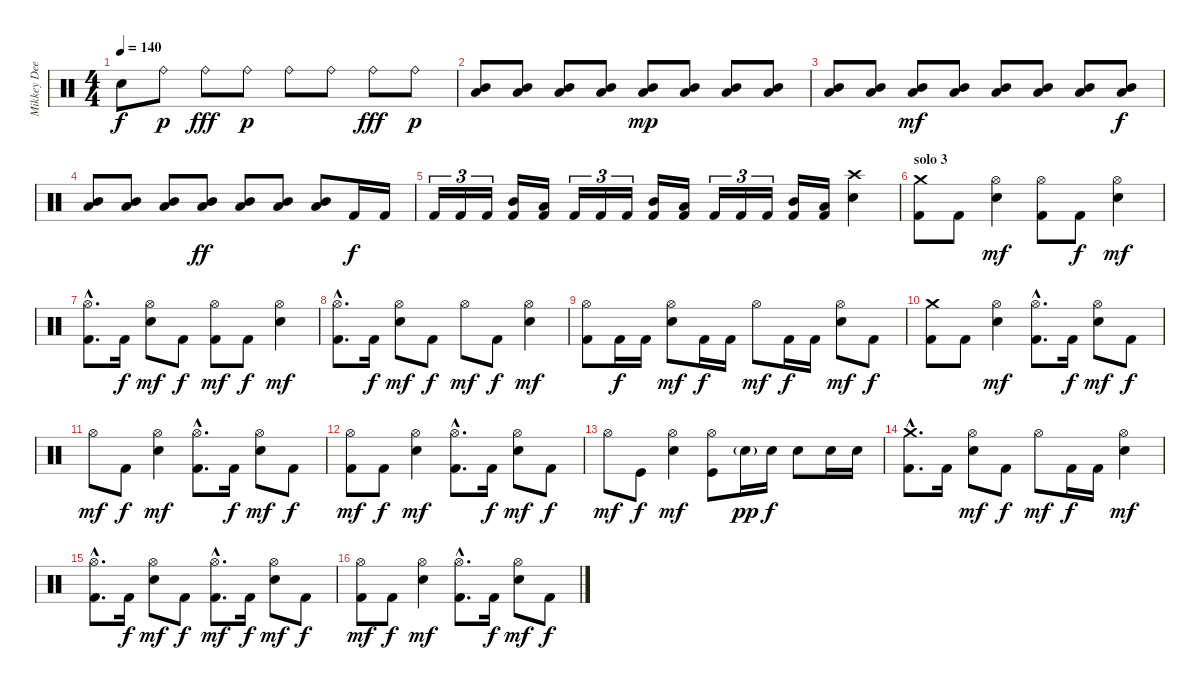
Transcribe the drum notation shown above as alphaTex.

\track ("Mikkey Dee" "Mikkey Dee") {instrument percussion}
\staff {score}
\articulation defaults
\ts (4 4)
\tempo 140
\clef neutral
\ks c "Snare (hit)"{t}.8{dy f} "Ride (bell)".8{dy p} "Ride (bell)".8{dy fff} "Ride (bell)".8{dy p} "Ride (bell)".8 "Ride (bell)".8 "Ride (bell)".8{dy fff} "Ride (bell)".8{dy p}
|
("Mid Tom (hit)" "Low Tom (hit)").8 ("Mid Tom (hit)" "Low Tom (hit)").8 ("Mid Tom (hit)" "Low Tom (hit)").8 ("Mid Tom (hit)" "Low Tom (hit)").8 ("Mid Tom (hit)" "Low Tom (hit)").8{dy mp} ("Mid Tom (hit)" "Low Tom (hit)").8 ("Mid Tom (hit)" "Low Tom (hit)").8 ("Mid Tom (hit)" "Low Tom (hit)").8 |
("Mid Tom (hit)" "Low Tom (hit)").8 ("Mid Tom (hit)" "Low Tom (hit)").8 ("Mid Tom (hit)" "Low Tom (hit)").8{dy mf} ("Mid Tom (hit)" "Low Tom (hit)").8 ("Mid Tom (hit)" "Low Tom (hit)").8 ("Mid Tom (hit)" "Low Tom (hit)").8 ("Mid Tom (hit)" "Low Tom (hit)").8 ("Mid Tom (hit)" "Low Tom (hit)").8{dy f} |
("Mid Tom (hit)" "Low Tom (hit)").8 ("Mid Tom (hit)" "Low Tom (hit)").8 ("Mid Tom (hit)" "Low Tom (hit)").8 ("Mid Tom (hit)" "Low Tom (hit)").8{dy ff} ("Mid Tom (hit)" "Low Tom (hit)").8 ("Mid Tom (hit)" "Low Tom (hit)").8 ("Mid Tom (hit)" "Low Tom (hit)").8 "Kick (hit) 2".16{dy f} "Kick (hit) 2".16 |
"Kick (hit) 2".16{tu (3 2)} "Kick (hit) 2".16{tu (3 2)} "Kick (hit) 2".16{tu (3 2)} ("Kick (hit) 2" "Mid Tom (hit)").16 ("Kick (hit) 2" "Low Tom (hit)").16 "Kick (hit) 2".16{tu (3 2)} "Kick (hit) 2".16{tu (3 2)} "Kick (hit) 2".16{tu (3 2)} ("Kick (hit) 2" "Mid Tom (hit)").16 ("Kick (hit) 2" "Low Tom (hit)").16 "Kick (hit) 2".16{tu (3 2)} "Kick (hit) 2".16{tu (3 2)} "Kick (hit) 2".16{tu (3 2)} ("Kick (hit) 2" "Mid Tom (hit)").16 ("Kick (hit) 2" "Low Tom (hit)").16 ("Crash high (hit)" "Snare (hit) 2").4 |
\section ("" "solo 3")
("Kick (hit) 2" "Crash medium (hit)").8 "Kick (hit) 2".8 ("Hi-Hat (open)" "Snare (hit) 2").4{dy mf} ("Kick (hit) 2" "Hi-Hat (open)").8 "Kick (hit) 2".8{dy f} ("Hi-Hat (open)" "Snare (hit) 2").4{dy mf} |
("Kick (hit) 2"{hac} "Hi-Hat (open)"{hac}).8{d} "Kick (hit) 2".16{dy f} ("Hi-Hat (open)" "Snare (hit) 2").8{dy mf} "Kick (hit) 2".8{dy f} ("Kick (hit) 2" "Hi-Hat (open)").8{dy mf} "Kick (hit) 2".8{dy f} ("Hi-Hat (open)" "Snare (hit) 2").4{dy mf} |
("Kick (hit) 2"{hac} "Hi-Hat (open)"{hac}).8{d} "Kick (hit) 2".16{dy f} ("Hi-Hat (open)" "Snare (hit) 2").8{dy mf} "Kick (hit) 2".8{dy f} "Hi-Hat (open)".8{dy mf} "Kick (hit) 2".8{dy f} ("Hi-Hat (open)" "Snare (hit) 2").4{dy mf} |
("Kick (hit) 2" "Hi-Hat (open)").8 "Kick (hit) 2".16{dy f} "Kick (hit) 2".16 ("Hi-Hat (open)" "Snare (hit) 2").8{dy mf} "Kick (hit) 2".16{dy f} "Kick (hit) 2".16 "Hi-Hat (open)".8{dy mf} "Kick (hit) 2".16{dy f} "Kick (hit) 2".16 ("Hi-Hat (open)" "Snare (hit) 2").8{dy mf} "Kick (hit) 2".8{dy f} |
("Kick (hit) 2" "Crash medium (hit)").8 "Kick (hit) 2".8 ("Hi-Hat (open)" "Snare (hit) 2").4{dy mf} ("Kick (hit) 2"{hac} "Hi-Hat (open)"{hac}).8{d} "Kick (hit) 2".16{dy f} ("Hi-Hat (open)" "Snare (hit) 2").8{dy mf} "Kick (hit) 2".8{dy f} |
"Hi-Hat (open)".8{dy mf} "Kick (hit) 2".8{dy f} ("Hi-Hat (open)" "Snare (hit) 2").4{dy mf} ("Kick (hit) 2"{hac} "Hi-Hat (open)"{hac}).8{d} "Kick (hit) 2".16{dy f} ("Hi-Hat (open)" "Snare (hit) 2").8{dy mf} "Kick (hit) 2".8{dy f} |
("Kick (hit) 2" "Hi-Hat (open)").8{dy mf} "Kick (hit) 2".8{dy f} ("Hi-Hat (open)" "Snare (hit) 2").4{dy mf} ("Kick (hit) 2"{hac} "Hi-Hat (open)"{hac}).8{d} "Kick (hit) 2".16{dy f} ("Hi-Hat (open)" "Snare (hit) 2").8{dy mf} "Kick (hit) 2".8{dy f} |
"Hi-Hat (open)".8{dy mf} "Kick (hit)".8{dy f} ("Hi-Hat (open)" "Snare (hit) 2").4{dy mf} ("Kick (hit)" "Hi-Hat (open)").8 "Snare (hit) 2"{g}.16{dy pp} "Snare (hit) 2".16{dy f} "Snare (hit) 2".8 "Snare (hit) 2".16 "Snare (hit) 2".16 |
("Kick (hit) 2"{hac} "Crash medium (hit)"{hac}).8{d} "Kick (hit) 2".16 ("Hi-Hat (open)" "Snare (hit) 2").8{dy mf} "Kick (hit) 2".8{dy f} "Hi-Hat (open)".8{dy mf} "Kick (hit) 2".16{dy f} "Kick (hit) 2".16 ("Hi-Hat (open)" "Snare (hit) 2").4{dy mf} |
("Kick (hit) 2"{hac} "Hi-Hat (open)"{hac}).8{d} "Kick (hit) 2".16{dy f} ("Hi-Hat (open)" "Snare (hit) 2").8{dy mf} "Kick (hit) 2".8{dy f} ("Kick (hit) 2"{hac} "Hi-Hat (open)"{hac}).8{d dy mf} "Kick (hit) 2".16{dy f} ("Hi-Hat (open)" "Snare (hit) 2").8{dy mf} "Kick (hit) 2".8{dy f} |
("Kick (hit) 2" "Hi-Hat (open)").8{dy mf} "Kick (hit) 2".8{dy f} ("Hi-Hat (open)" "Snare (hit) 2").4{dy mf} ("Kick (hit) 2"{hac} "Hi-Hat (open)"{hac}).8{d} "Kick (hit) 2".16{dy f} ("Hi-Hat (open)" "Snare (hit) 2").8{dy mf} "Kick (hit) 2".8{dy f}
